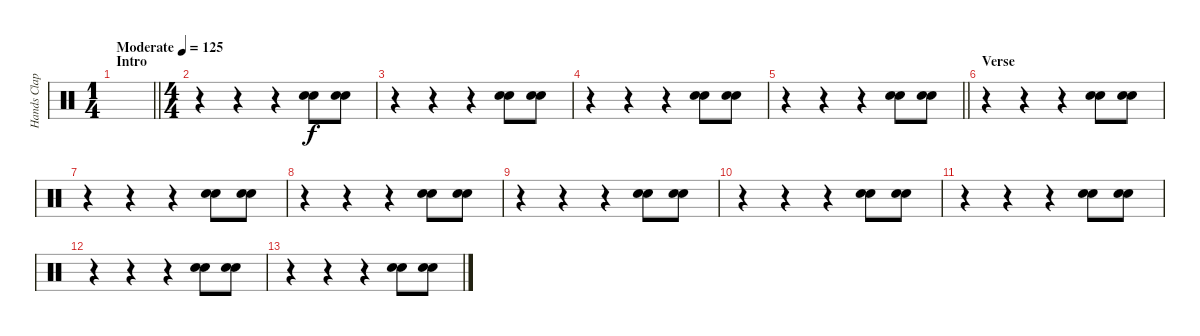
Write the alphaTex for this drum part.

\track ("Hands Clapping" "Hands Clap") {instrument percussion}
\staff {score}
\articulation defaults
\ts (1 4)
\section ("" "Intro")
\tempo (125 "Moderate")
\clef neutral
\barLineRight lightlight
\ks c
|
\ts (4 4)
\section ("" "")
r.4 r.4 r.4 ("Hand Clap (hit)" "Hand Clap (hit)").8 ("Hand Clap (hit)" "Hand Clap (hit)").8 |
r.4 r.4 r.4 ("Hand Clap (hit)" "Hand Clap (hit)").8 ("Hand Clap (hit)" "Hand Clap (hit)").8 |
r.4 r.4 r.4 ("Hand Clap (hit)" "Hand Clap (hit)").8 ("Hand Clap (hit)" "Hand Clap (hit)").8 |
\barLineRight lightlight
r.4 r.4 r.4 ("Hand Clap (hit)" "Hand Clap (hit)").8 ("Hand Clap (hit)" "Hand Clap (hit)").8 |
\section ("" "Verse")
r.4 r.4 r.4 ("Hand Clap (hit)" "Hand Clap (hit)").8 ("Hand Clap (hit)" "Hand Clap (hit)").8 |
r.4 r.4 r.4 ("Hand Clap (hit)" "Hand Clap (hit)").8 ("Hand Clap (hit)" "Hand Clap (hit)").8 |
r.4 r.4 r.4 ("Hand Clap (hit)" "Hand Clap (hit)").8 ("Hand Clap (hit)" "Hand Clap (hit)").8 |
r.4 r.4 r.4 ("Hand Clap (hit)" "Hand Clap (hit)").8 ("Hand Clap (hit)" "Hand Clap (hit)").8 |
r.4 r.4 r.4 ("Hand Clap (hit)" "Hand Clap (hit)").8 ("Hand Clap (hit)" "Hand Clap (hit)").8 |
r.4 r.4 r.4 ("Hand Clap (hit)" "Hand Clap (hit)").8 ("Hand Clap (hit)" "Hand Clap (hit)").8 |
r.4 r.4 r.4 ("Hand Clap (hit)" "Hand Clap (hit)").8 ("Hand Clap (hit)" "Hand Clap (hit)").8 |
r.4 r.4 r.4 ("Hand Clap (hit)" "Hand Clap (hit)").8 ("Hand Clap (hit)" "Hand Clap (hit)").8
